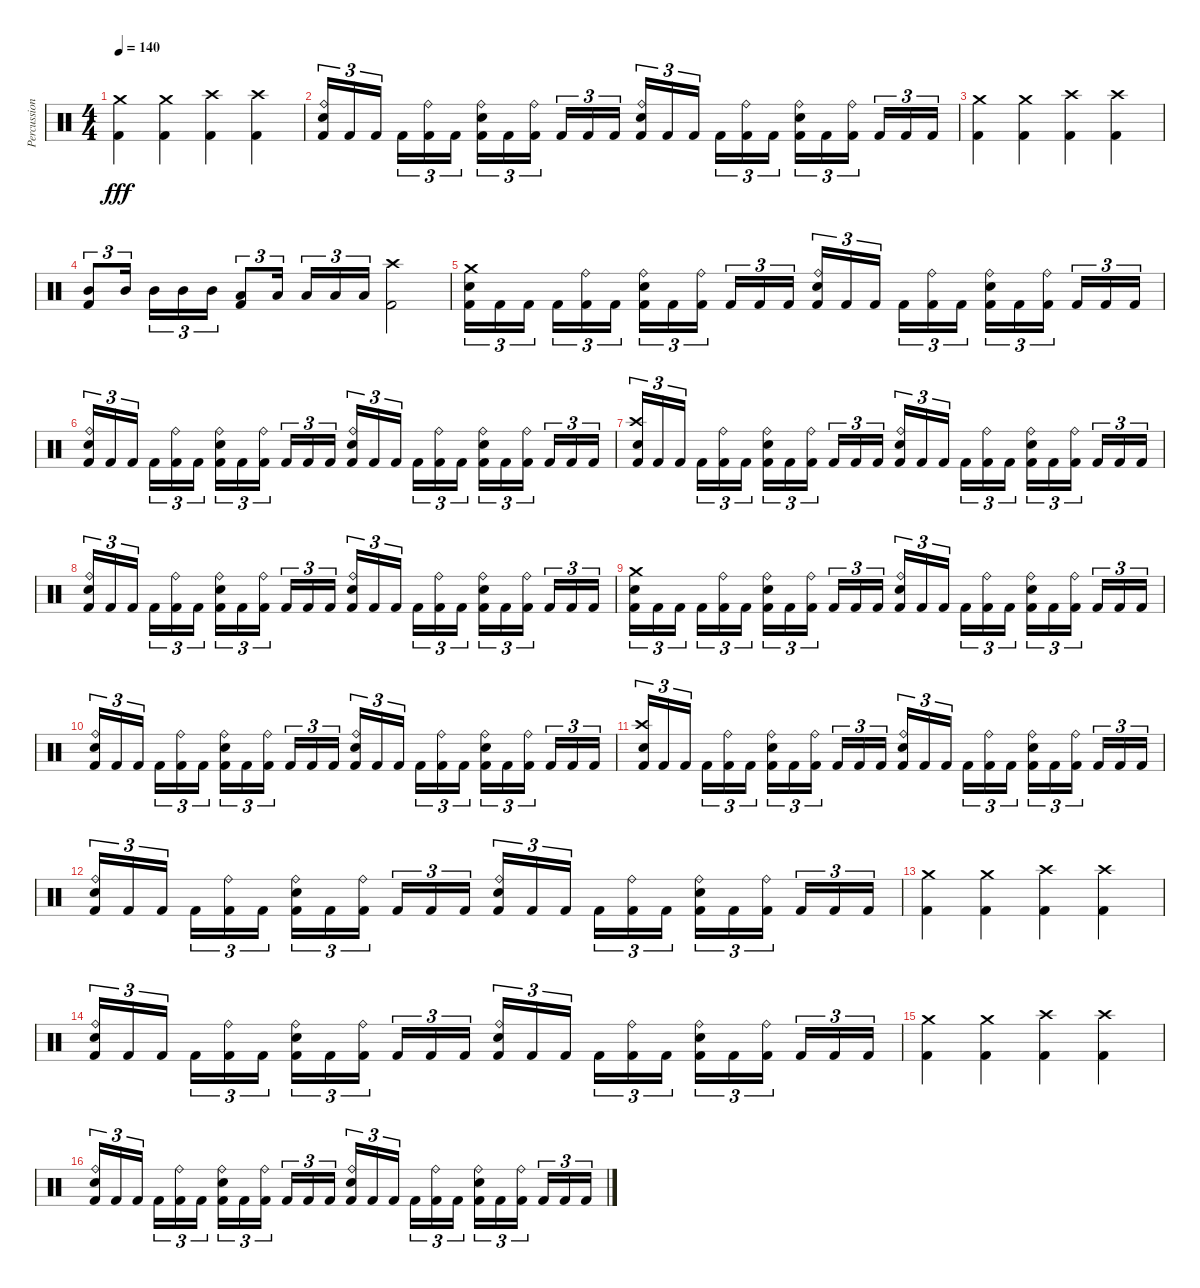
\track ("Percussions" "Percussion") {instrument percussion}
\staff {score}
\articulation defaults
\ts (4 4)
\tempo 140
\clef neutral
\ks c
("Crash medium (hit)" "Kick (hit) 2").4{dy fff} ("Crash medium (hit)" "Kick (hit) 2").4 ("Crash high (hit)" "Kick (hit) 2").4 ("Crash high (hit)" "Kick (hit) 2").4 |
("Ride (bell)" "Snare (hit) 2" "Kick (hit) 2").16{tu (3 2)} "Kick (hit) 2".16{tu (3 2)} "Kick (hit) 2".16{tu (3 2) beam splitsecondary} "Kick (hit) 2".16{tu (3 2)} ("Ride (bell)" "Kick (hit) 2").16{tu (3 2)} "Kick (hit) 2".16{tu (3 2)} ("Ride (bell)" "Snare (hit) 2" "Kick (hit) 2").16{tu (3 2)} "Kick (hit) 2".16{tu (3 2)} ("Ride (bell)" "Kick (hit) 2").16{tu (3 2) beam splitsecondary} "Kick (hit) 2".16{tu (3 2)} "Kick (hit) 2".16{tu (3 2)} "Kick (hit) 2".16{tu (3 2)} ("Ride (bell)" "Snare (hit) 2" "Kick (hit) 2").16{tu (3 2)} "Kick (hit) 2".16{tu (3 2)} "Kick (hit) 2".16{tu (3 2) beam splitsecondary} "Kick (hit) 2".16{tu (3 2)} ("Ride (bell)" "Kick (hit) 2").16{tu (3 2)} "Kick (hit) 2".16{tu (3 2)} ("Ride (bell)" "Snare (hit) 2" "Kick (hit) 2").16{tu (3 2)} "Kick (hit) 2".16{tu (3 2)} ("Ride (bell)" "Kick (hit) 2").16{tu (3 2) beam splitsecondary} "Kick (hit) 2".16{tu (3 2)} "Kick (hit) 2".16{tu (3 2)} "Kick (hit) 2".16{tu (3 2)} |
("Crash medium (hit)" "Kick (hit) 2").4 ("Crash medium (hit)" "Kick (hit) 2").4 ("Crash high (hit)" "Kick (hit) 2").4 ("Crash high (hit)" "Kick (hit) 2").4 |
("Mid Tom (hit)" "Kick (hit) 2").8{tu (3 2)} "Mid Tom (hit)".16{tu (3 2) beam splitsecondary} "Mid Tom (hit)".16{tu (3 2)} "Mid Tom (hit)".16{tu (3 2)} "Mid Tom (hit)".16{tu (3 2)} ("Low Tom (hit)" "Kick (hit) 2").8{tu (3 2)} "Low Tom (hit)".16{tu (3 2) beam splitsecondary} "Low Tom (hit)".16{tu (3 2)} "Low Tom (hit)".16{tu (3 2)} "Low Tom (hit)".16{tu (3 2)} ("Crash high (hit)" "Kick (hit) 2").2 |
("Crash medium (hit)" "Snare (hit) 2" "Kick (hit) 2").16{tu (3 2)} "Kick (hit) 2".16{tu (3 2)} "Kick (hit) 2".16{tu (3 2) beam splitsecondary} "Kick (hit) 2".16{tu (3 2)} ("Ride (bell)" "Kick (hit) 2").16{tu (3 2)} "Kick (hit) 2".16{tu (3 2)} ("Ride (bell)" "Snare (hit) 2" "Kick (hit) 2").16{tu (3 2)} "Kick (hit) 2".16{tu (3 2)} ("Ride (bell)" "Kick (hit) 2").16{tu (3 2) beam splitsecondary} "Kick (hit) 2".16{tu (3 2)} "Kick (hit) 2".16{tu (3 2)} "Kick (hit) 2".16{tu (3 2)} ("Ride (bell)" "Snare (hit) 2" "Kick (hit) 2").16{tu (3 2)} "Kick (hit) 2".16{tu (3 2)} "Kick (hit) 2".16{tu (3 2) beam splitsecondary} "Kick (hit) 2".16{tu (3 2)} ("Ride (bell)" "Kick (hit) 2").16{tu (3 2)} "Kick (hit) 2".16{tu (3 2)} ("Ride (bell)" "Snare (hit) 2" "Kick (hit) 2").16{tu (3 2)} "Kick (hit) 2".16{tu (3 2)} ("Ride (bell)" "Kick (hit) 2").16{tu (3 2) beam splitsecondary} "Kick (hit) 2".16{tu (3 2)} "Kick (hit) 2".16{tu (3 2)} "Kick (hit) 2".16{tu (3 2)} |
("Ride (bell)" "Snare (hit) 2" "Kick (hit) 2").16{tu (3 2)} "Kick (hit) 2".16{tu (3 2)} "Kick (hit) 2".16{tu (3 2) beam splitsecondary} "Kick (hit) 2".16{tu (3 2)} ("Ride (bell)" "Kick (hit) 2").16{tu (3 2)} "Kick (hit) 2".16{tu (3 2)} ("Ride (bell)" "Snare (hit) 2" "Kick (hit) 2").16{tu (3 2)} "Kick (hit) 2".16{tu (3 2)} ("Ride (bell)" "Kick (hit) 2").16{tu (3 2) beam splitsecondary} "Kick (hit) 2".16{tu (3 2)} "Kick (hit) 2".16{tu (3 2)} "Kick (hit) 2".16{tu (3 2)} ("Ride (bell)" "Snare (hit) 2" "Kick (hit) 2").16{tu (3 2)} "Kick (hit) 2".16{tu (3 2)} "Kick (hit) 2".16{tu (3 2) beam splitsecondary} "Kick (hit) 2".16{tu (3 2)} ("Ride (bell)" "Kick (hit) 2").16{tu (3 2)} "Kick (hit) 2".16{tu (3 2)} ("Ride (bell)" "Snare (hit) 2" "Kick (hit) 2").16{tu (3 2)} "Kick (hit) 2".16{tu (3 2)} ("Ride (bell)" "Kick (hit) 2").16{tu (3 2) beam splitsecondary} "Kick (hit) 2".16{tu (3 2)} "Kick (hit) 2".16{tu (3 2)} "Kick (hit) 2".16{tu (3 2)} |
("Crash high (hit)" "Snare (hit) 2" "Kick (hit) 2").16{tu (3 2)} "Kick (hit) 2".16{tu (3 2)} "Kick (hit) 2".16{tu (3 2) beam splitsecondary} "Kick (hit) 2".16{tu (3 2)} ("Ride (bell)" "Kick (hit) 2").16{tu (3 2)} "Kick (hit) 2".16{tu (3 2)} ("Ride (bell)" "Snare (hit) 2" "Kick (hit) 2").16{tu (3 2)} "Kick (hit) 2".16{tu (3 2)} ("Ride (bell)" "Kick (hit) 2").16{tu (3 2) beam splitsecondary} "Kick (hit) 2".16{tu (3 2)} "Kick (hit) 2".16{tu (3 2)} "Kick (hit) 2".16{tu (3 2)} ("Ride (bell)" "Snare (hit) 2" "Kick (hit) 2").16{tu (3 2)} "Kick (hit) 2".16{tu (3 2)} "Kick (hit) 2".16{tu (3 2) beam splitsecondary} "Kick (hit) 2".16{tu (3 2)} ("Ride (bell)" "Kick (hit) 2").16{tu (3 2)} "Kick (hit) 2".16{tu (3 2)} ("Ride (bell)" "Snare (hit) 2" "Kick (hit) 2").16{tu (3 2)} "Kick (hit) 2".16{tu (3 2)} ("Ride (bell)" "Kick (hit) 2").16{tu (3 2) beam splitsecondary} "Kick (hit) 2".16{tu (3 2)} "Kick (hit) 2".16{tu (3 2)} "Kick (hit) 2".16{tu (3 2)} |
("Ride (bell)" "Snare (hit) 2" "Kick (hit) 2").16{tu (3 2)} "Kick (hit) 2".16{tu (3 2)} "Kick (hit) 2".16{tu (3 2) beam splitsecondary} "Kick (hit) 2".16{tu (3 2)} ("Ride (bell)" "Kick (hit) 2").16{tu (3 2)} "Kick (hit) 2".16{tu (3 2)} ("Ride (bell)" "Snare (hit) 2" "Kick (hit) 2").16{tu (3 2)} "Kick (hit) 2".16{tu (3 2)} ("Ride (bell)" "Kick (hit) 2").16{tu (3 2) beam splitsecondary} "Kick (hit) 2".16{tu (3 2)} "Kick (hit) 2".16{tu (3 2)} "Kick (hit) 2".16{tu (3 2)} ("Ride (bell)" "Snare (hit) 2" "Kick (hit) 2").16{tu (3 2)} "Kick (hit) 2".16{tu (3 2)} "Kick (hit) 2".16{tu (3 2) beam splitsecondary} "Kick (hit) 2".16{tu (3 2)} ("Ride (bell)" "Kick (hit) 2").16{tu (3 2)} "Kick (hit) 2".16{tu (3 2)} ("Ride (bell)" "Snare (hit) 2" "Kick (hit) 2").16{tu (3 2)} "Kick (hit) 2".16{tu (3 2)} ("Ride (bell)" "Kick (hit) 2").16{tu (3 2) beam splitsecondary} "Kick (hit) 2".16{tu (3 2)} "Kick (hit) 2".16{tu (3 2)} "Kick (hit) 2".16{tu (3 2)} |
("Crash medium (hit)" "Snare (hit) 2" "Kick (hit) 2").16{tu (3 2)} "Kick (hit) 2".16{tu (3 2)} "Kick (hit) 2".16{tu (3 2) beam splitsecondary} "Kick (hit) 2".16{tu (3 2)} ("Ride (bell)" "Kick (hit) 2").16{tu (3 2)} "Kick (hit) 2".16{tu (3 2)} ("Ride (bell)" "Snare (hit) 2" "Kick (hit) 2").16{tu (3 2)} "Kick (hit) 2".16{tu (3 2)} ("Ride (bell)" "Kick (hit) 2").16{tu (3 2) beam splitsecondary} "Kick (hit) 2".16{tu (3 2)} "Kick (hit) 2".16{tu (3 2)} "Kick (hit) 2".16{tu (3 2)} ("Ride (bell)" "Snare (hit) 2" "Kick (hit) 2").16{tu (3 2)} "Kick (hit) 2".16{tu (3 2)} "Kick (hit) 2".16{tu (3 2) beam splitsecondary} "Kick (hit) 2".16{tu (3 2)} ("Ride (bell)" "Kick (hit) 2").16{tu (3 2)} "Kick (hit) 2".16{tu (3 2)} ("Ride (bell)" "Snare (hit) 2" "Kick (hit) 2").16{tu (3 2)} "Kick (hit) 2".16{tu (3 2)} ("Ride (bell)" "Kick (hit) 2").16{tu (3 2) beam splitsecondary} "Kick (hit) 2".16{tu (3 2)} "Kick (hit) 2".16{tu (3 2)} "Kick (hit) 2".16{tu (3 2)} |
("Ride (bell)" "Snare (hit) 2" "Kick (hit) 2").16{tu (3 2)} "Kick (hit) 2".16{tu (3 2)} "Kick (hit) 2".16{tu (3 2) beam splitsecondary} "Kick (hit) 2".16{tu (3 2)} ("Ride (bell)" "Kick (hit) 2").16{tu (3 2)} "Kick (hit) 2".16{tu (3 2)} ("Ride (bell)" "Snare (hit) 2" "Kick (hit) 2").16{tu (3 2)} "Kick (hit) 2".16{tu (3 2)} ("Ride (bell)" "Kick (hit) 2").16{tu (3 2) beam splitsecondary} "Kick (hit) 2".16{tu (3 2)} "Kick (hit) 2".16{tu (3 2)} "Kick (hit) 2".16{tu (3 2)} ("Ride (bell)" "Snare (hit) 2" "Kick (hit) 2").16{tu (3 2)} "Kick (hit) 2".16{tu (3 2)} "Kick (hit) 2".16{tu (3 2) beam splitsecondary} "Kick (hit) 2".16{tu (3 2)} ("Ride (bell)" "Kick (hit) 2").16{tu (3 2)} "Kick (hit) 2".16{tu (3 2)} ("Ride (bell)" "Snare (hit) 2" "Kick (hit) 2").16{tu (3 2)} "Kick (hit) 2".16{tu (3 2)} ("Ride (bell)" "Kick (hit) 2").16{tu (3 2) beam splitsecondary} "Kick (hit) 2".16{tu (3 2)} "Kick (hit) 2".16{tu (3 2)} "Kick (hit) 2".16{tu (3 2)} |
("Crash high (hit)" "Snare (hit) 2" "Kick (hit) 2").16{tu (3 2)} "Kick (hit) 2".16{tu (3 2)} "Kick (hit) 2".16{tu (3 2) beam splitsecondary} "Kick (hit) 2".16{tu (3 2)} ("Ride (bell)" "Kick (hit) 2").16{tu (3 2)} "Kick (hit) 2".16{tu (3 2)} ("Ride (bell)" "Snare (hit) 2" "Kick (hit) 2").16{tu (3 2)} "Kick (hit) 2".16{tu (3 2)} ("Ride (bell)" "Kick (hit) 2").16{tu (3 2) beam splitsecondary} "Kick (hit) 2".16{tu (3 2)} "Kick (hit) 2".16{tu (3 2)} "Kick (hit) 2".16{tu (3 2)} ("Ride (bell)" "Snare (hit) 2" "Kick (hit) 2").16{tu (3 2)} "Kick (hit) 2".16{tu (3 2)} "Kick (hit) 2".16{tu (3 2) beam splitsecondary} "Kick (hit) 2".16{tu (3 2)} ("Ride (bell)" "Kick (hit) 2").16{tu (3 2)} "Kick (hit) 2".16{tu (3 2)} ("Ride (bell)" "Snare (hit) 2" "Kick (hit) 2").16{tu (3 2)} "Kick (hit) 2".16{tu (3 2)} ("Ride (bell)" "Kick (hit) 2").16{tu (3 2) beam splitsecondary} "Kick (hit) 2".16{tu (3 2)} "Kick (hit) 2".16{tu (3 2)} "Kick (hit) 2".16{tu (3 2)} |
("Ride (bell)" "Snare (hit) 2" "Kick (hit) 2").16{tu (3 2)} "Kick (hit) 2".16{tu (3 2)} "Kick (hit) 2".16{tu (3 2) beam splitsecondary} "Kick (hit) 2".16{tu (3 2)} ("Ride (bell)" "Kick (hit) 2").16{tu (3 2)} "Kick (hit) 2".16{tu (3 2)} ("Ride (bell)" "Snare (hit) 2" "Kick (hit) 2").16{tu (3 2)} "Kick (hit) 2".16{tu (3 2)} ("Ride (bell)" "Kick (hit) 2").16{tu (3 2) beam splitsecondary} "Kick (hit) 2".16{tu (3 2)} "Kick (hit) 2".16{tu (3 2)} "Kick (hit) 2".16{tu (3 2)} ("Ride (bell)" "Snare (hit) 2" "Kick (hit) 2").16{tu (3 2)} "Kick (hit) 2".16{tu (3 2)} "Kick (hit) 2".16{tu (3 2) beam splitsecondary} "Kick (hit) 2".16{tu (3 2)} ("Ride (bell)" "Kick (hit) 2").16{tu (3 2)} "Kick (hit) 2".16{tu (3 2)} ("Ride (bell)" "Snare (hit) 2" "Kick (hit) 2").16{tu (3 2)} "Kick (hit) 2".16{tu (3 2)} ("Ride (bell)" "Kick (hit) 2").16{tu (3 2) beam splitsecondary} "Kick (hit) 2".16{tu (3 2)} "Kick (hit) 2".16{tu (3 2)} "Kick (hit) 2".16{tu (3 2)} |
("Crash medium (hit)" "Kick (hit) 2").4 ("Crash medium (hit)" "Kick (hit) 2").4 ("Crash high (hit)" "Kick (hit) 2").4 ("Crash high (hit)" "Kick (hit) 2").4 |
("Ride (bell)" "Snare (hit) 2" "Kick (hit) 2").16{tu (3 2)} "Kick (hit) 2".16{tu (3 2)} "Kick (hit) 2".16{tu (3 2) beam splitsecondary} "Kick (hit) 2".16{tu (3 2)} ("Ride (bell)" "Kick (hit) 2").16{tu (3 2)} "Kick (hit) 2".16{tu (3 2)} ("Ride (bell)" "Snare (hit) 2" "Kick (hit) 2").16{tu (3 2)} "Kick (hit) 2".16{tu (3 2)} ("Ride (bell)" "Kick (hit) 2").16{tu (3 2) beam splitsecondary} "Kick (hit) 2".16{tu (3 2)} "Kick (hit) 2".16{tu (3 2)} "Kick (hit) 2".16{tu (3 2)} ("Ride (bell)" "Snare (hit) 2" "Kick (hit) 2").16{tu (3 2)} "Kick (hit) 2".16{tu (3 2)} "Kick (hit) 2".16{tu (3 2) beam splitsecondary} "Kick (hit) 2".16{tu (3 2)} ("Ride (bell)" "Kick (hit) 2").16{tu (3 2)} "Kick (hit) 2".16{tu (3 2)} ("Ride (bell)" "Snare (hit) 2" "Kick (hit) 2").16{tu (3 2)} "Kick (hit) 2".16{tu (3 2)} ("Ride (bell)" "Kick (hit) 2").16{tu (3 2) beam splitsecondary} "Kick (hit) 2".16{tu (3 2)} "Kick (hit) 2".16{tu (3 2)} "Kick (hit) 2".16{tu (3 2)} |
("Crash medium (hit)" "Kick (hit) 2").4 ("Crash medium (hit)" "Kick (hit) 2").4 ("Crash high (hit)" "Kick (hit) 2").4 ("Crash high (hit)" "Kick (hit) 2").4 |
("Ride (bell)" "Snare (hit) 2" "Kick (hit) 2").16{tu (3 2)} "Kick (hit) 2".16{tu (3 2)} "Kick (hit) 2".16{tu (3 2) beam splitsecondary} "Kick (hit) 2".16{tu (3 2)} ("Ride (bell)" "Kick (hit) 2").16{tu (3 2)} "Kick (hit) 2".16{tu (3 2)} ("Ride (bell)" "Snare (hit) 2" "Kick (hit) 2").16{tu (3 2)} "Kick (hit) 2".16{tu (3 2)} ("Ride (bell)" "Kick (hit) 2").16{tu (3 2) beam splitsecondary} "Kick (hit) 2".16{tu (3 2)} "Kick (hit) 2".16{tu (3 2)} "Kick (hit) 2".16{tu (3 2)} ("Ride (bell)" "Snare (hit) 2" "Kick (hit) 2").16{tu (3 2)} "Kick (hit) 2".16{tu (3 2)} "Kick (hit) 2".16{tu (3 2) beam splitsecondary} "Kick (hit) 2".16{tu (3 2)} ("Ride (bell)" "Kick (hit) 2").16{tu (3 2)} "Kick (hit) 2".16{tu (3 2)} ("Ride (bell)" "Snare (hit) 2" "Kick (hit) 2").16{tu (3 2)} "Kick (hit) 2".16{tu (3 2)} ("Ride (bell)" "Kick (hit) 2").16{tu (3 2) beam splitsecondary} "Kick (hit) 2".16{tu (3 2)} "Kick (hit) 2".16{tu (3 2)} "Kick (hit) 2".16{tu (3 2)}
